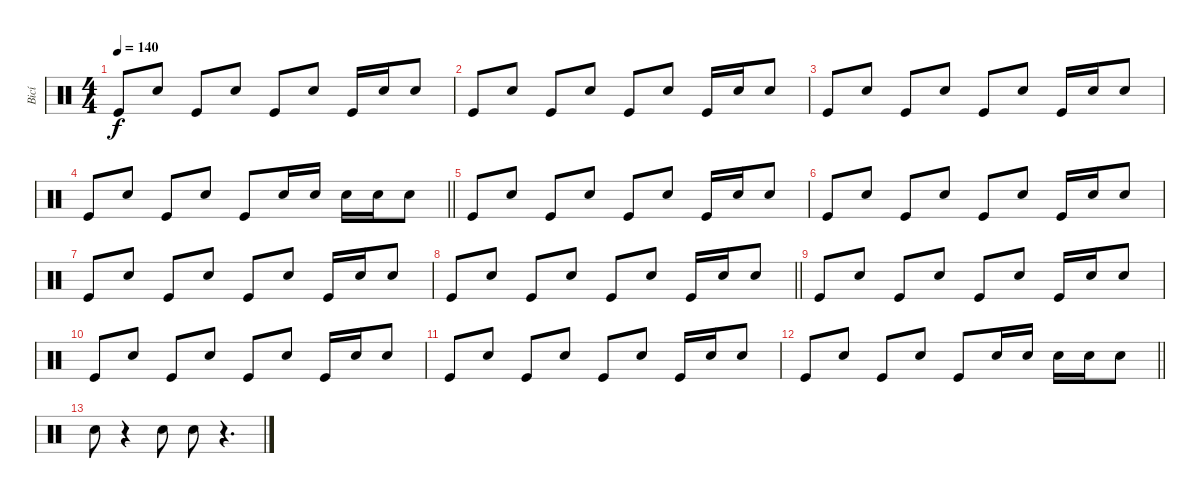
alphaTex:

\track ("Bicí" "Bicí") {instrument percussion}
\staff {score}
\articulation defaults
\ts (4 4)
\tempo 140
\clef neutral
\ks c "Kick (hit)".8{dy f} "Electric Snare (hit)".8 "Kick (hit)".8 "Electric Snare (hit)".8 "Kick (hit)".8 "Electric Snare (hit)".8 "Kick (hit)".16 "Electric Snare (hit)".16 "Electric Snare (hit)".8
|
"Kick (hit)".8 "Electric Snare (hit)".8 "Kick (hit)".8 "Electric Snare (hit)".8 "Kick (hit)".8 "Electric Snare (hit)".8 "Kick (hit)".16 "Electric Snare (hit)".16 "Electric Snare (hit)".8 |
"Kick (hit)".8 "Electric Snare (hit)".8 "Kick (hit)".8 "Electric Snare (hit)".8 "Kick (hit)".8 "Electric Snare (hit)".8 "Kick (hit)".16 "Electric Snare (hit)".16 "Electric Snare (hit)".8 |
\barLineRight lightlight "Kick (hit)".8 "Electric Snare (hit)".8 "Kick (hit)".8 "Electric Snare (hit)".8 "Kick (hit)".8 "Electric Snare (hit)".16 "Electric Snare (hit)".16 "Electric Snare (hit)".16 "Electric Snare (hit)".16 "Electric Snare (hit)".8
|
"Kick (hit)".8 "Electric Snare (hit)".8 "Kick (hit)".8 "Electric Snare (hit)".8 "Kick (hit)".8 "Electric Snare (hit)".8 "Kick (hit)".16 "Electric Snare (hit)".16 "Electric Snare (hit)".8 |
"Kick (hit)".8 "Electric Snare (hit)".8 "Kick (hit)".8 "Electric Snare (hit)".8 "Kick (hit)".8 "Electric Snare (hit)".8 "Kick (hit)".16 "Electric Snare (hit)".16 "Electric Snare (hit)".8 |
"Kick (hit)".8 "Electric Snare (hit)".8 "Kick (hit)".8 "Electric Snare (hit)".8 "Kick (hit)".8 "Electric Snare (hit)".8 "Kick (hit)".16 "Electric Snare (hit)".16 "Electric Snare (hit)".8 |
\barLineRight lightlight "Kick (hit)".8 "Electric Snare (hit)".8 "Kick (hit)".8 "Electric Snare (hit)".8 "Kick (hit)".8 "Electric Snare (hit)".8 "Kick (hit)".16 "Electric Snare (hit)".16 "Electric Snare (hit)".8
|
"Kick (hit)".8 "Electric Snare (hit)".8 "Kick (hit)".8 "Electric Snare (hit)".8 "Kick (hit)".8 "Electric Snare (hit)".8 "Kick (hit)".16 "Electric Snare (hit)".16 "Electric Snare (hit)".8 |
"Kick (hit)".8 "Electric Snare (hit)".8 "Kick (hit)".8 "Electric Snare (hit)".8 "Kick (hit)".8 "Electric Snare (hit)".8 "Kick (hit)".16 "Electric Snare (hit)".16 "Electric Snare (hit)".8 |
"Kick (hit)".8 "Electric Snare (hit)".8 "Kick (hit)".8 "Electric Snare (hit)".8 "Kick (hit)".8 "Electric Snare (hit)".8 "Kick (hit)".16 "Electric Snare (hit)".16 "Electric Snare (hit)".8 |
\barLineRight lightlight "Kick (hit)".8 "Electric Snare (hit)".8 "Kick (hit)".8 "Electric Snare (hit)".8 "Kick (hit)".8 "Electric Snare (hit)".16 "Electric Snare (hit)".16 "Electric Snare (hit)".16 "Electric Snare (hit)".16 "Electric Snare (hit)".8
|
"Electric Snare (hit)".8 r.4 "Electric Snare (hit)".8 "Electric Snare (hit)".8 r.4{d}
